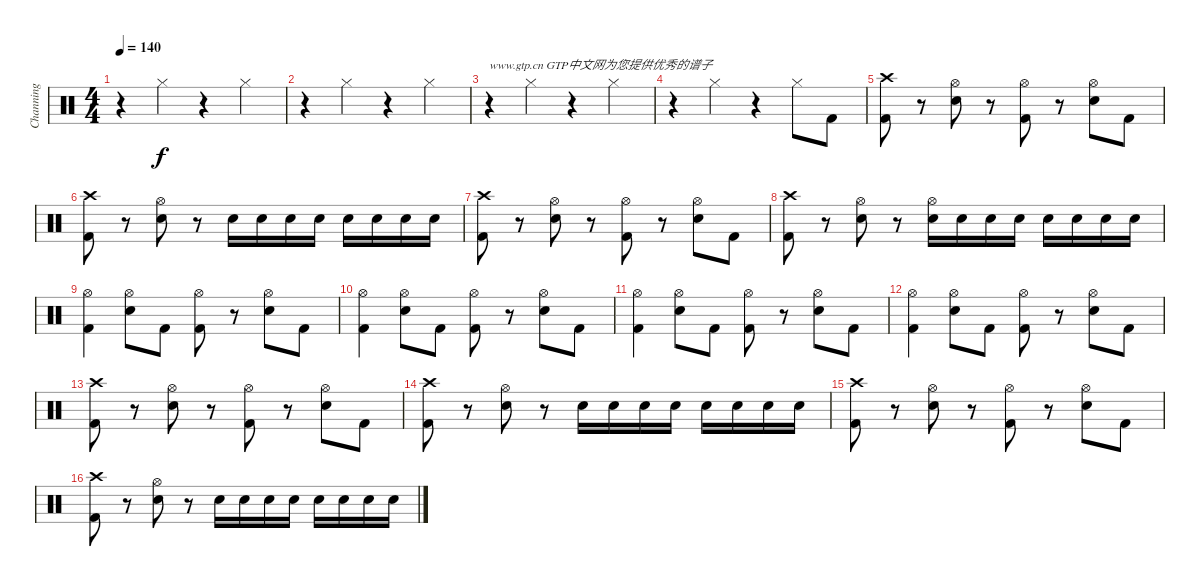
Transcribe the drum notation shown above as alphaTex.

\track ("Channing" "Channing") {instrument percussion}
\staff {score}
\articulation defaults
\ts (4 4)
\tempo 140
\clef neutral
\ks c
r.4{dy f} "Hi-Hat (closed)".4 r.4 "Hi-Hat (closed)".4 |
r.4 "Hi-Hat (closed)".4 r.4 "Hi-Hat (closed)".4 |
r.4{txt "www.gtp.cn GTP中文网为您提供优秀的谱子"} "Hi-Hat (closed)".4 r.4 "Hi-Hat (closed)".4 |
r.4 "Hi-Hat (closed)".4 r.4 "Hi-Hat (closed)".8 "Kick (hit) 2".8 |
("Crash high (hit)" "Kick (hit) 2").8 r.8 ("Hi-Hat (open)" "Snare (hit) 2").8 r.8 ("Hi-Hat (open)" "Kick (hit) 2").8 r.8 ("Hi-Hat (open)" "Snare (hit) 2").8 "Kick (hit) 2".8 |
("Crash high (hit)" "Kick (hit) 2").8 r.8 ("Hi-Hat (open)" "Snare (hit) 2").8 r.8 "Snare (hit) 2".16 "Snare (hit) 2".16 "Snare (hit) 2".16 "Snare (hit) 2".16 "Snare (hit) 2".16 "Snare (hit) 2".16 "Snare (hit) 2".16 "Snare (hit) 2".16 |
("Crash high (hit)" "Kick (hit) 2").8 r.8 ("Hi-Hat (open)" "Snare (hit) 2").8 r.8 ("Hi-Hat (open)" "Kick (hit) 2").8 r.8 ("Hi-Hat (open)" "Snare (hit) 2").8 "Kick (hit) 2".8 |
("Crash high (hit)" "Kick (hit) 2").8 r.8 ("Hi-Hat (open)" "Snare (hit) 2").8 r.8 ("Hi-Hat (open)" "Snare (hit) 2").16 "Snare (hit) 2".16 "Snare (hit) 2".16 "Snare (hit) 2".16 "Snare (hit) 2".16 "Snare (hit) 2".16 "Snare (hit) 2".16 "Snare (hit) 2".16 |
("Hi-Hat (open)" "Kick (hit) 2").4 ("Hi-Hat (open)" "Snare (hit) 2").8 "Kick (hit) 2".8 ("Hi-Hat (open)" "Kick (hit) 2").8 r.8 ("Hi-Hat (open)" "Snare (hit) 2").8 "Kick (hit) 2".8 |
("Hi-Hat (open)" "Kick (hit) 2").4 ("Hi-Hat (open)" "Snare (hit) 2").8 "Kick (hit) 2".8 ("Hi-Hat (open)" "Kick (hit) 2").8 r.8 ("Hi-Hat (open)" "Snare (hit) 2").8 "Kick (hit) 2".8 |
("Hi-Hat (open)" "Kick (hit) 2").4 ("Hi-Hat (open)" "Snare (hit) 2").8 "Kick (hit) 2".8 ("Hi-Hat (open)" "Kick (hit) 2").8 r.8 ("Hi-Hat (open)" "Snare (hit) 2").8 "Kick (hit) 2".8 |
("Hi-Hat (open)" "Kick (hit) 2").4 ("Hi-Hat (open)" "Snare (hit) 2").8 "Kick (hit) 2".8 ("Hi-Hat (open)" "Kick (hit) 2").8 r.8 ("Hi-Hat (open)" "Snare (hit) 2").8 "Kick (hit) 2".8 |
("Crash high (hit)" "Kick (hit) 2").8 r.8 ("Hi-Hat (open)" "Snare (hit) 2").8 r.8 ("Hi-Hat (open)" "Kick (hit) 2").8 r.8 ("Hi-Hat (open)" "Snare (hit) 2").8 "Kick (hit) 2".8 |
("Crash high (hit)" "Kick (hit) 2").8 r.8 ("Hi-Hat (open)" "Snare (hit) 2").8 r.8 "Snare (hit) 2".16 "Snare (hit) 2".16 "Snare (hit) 2".16 "Snare (hit) 2".16 "Snare (hit) 2".16 "Snare (hit) 2".16 "Snare (hit) 2".16 "Snare (hit) 2".16 |
("Crash high (hit)" "Kick (hit) 2").8 r.8 ("Hi-Hat (open)" "Snare (hit) 2").8 r.8 ("Hi-Hat (open)" "Kick (hit) 2").8 r.8 ("Hi-Hat (open)" "Snare (hit) 2").8 "Kick (hit) 2".8 |
("Crash high (hit)" "Kick (hit) 2").8 r.8 ("Hi-Hat (open)" "Snare (hit) 2").8 r.8 "Snare (hit) 2".16 "Snare (hit) 2".16 "Snare (hit) 2".16 "Snare (hit) 2".16 "Snare (hit) 2".16 "Snare (hit) 2".16 "Snare (hit) 2".16 "Snare (hit) 2".16
